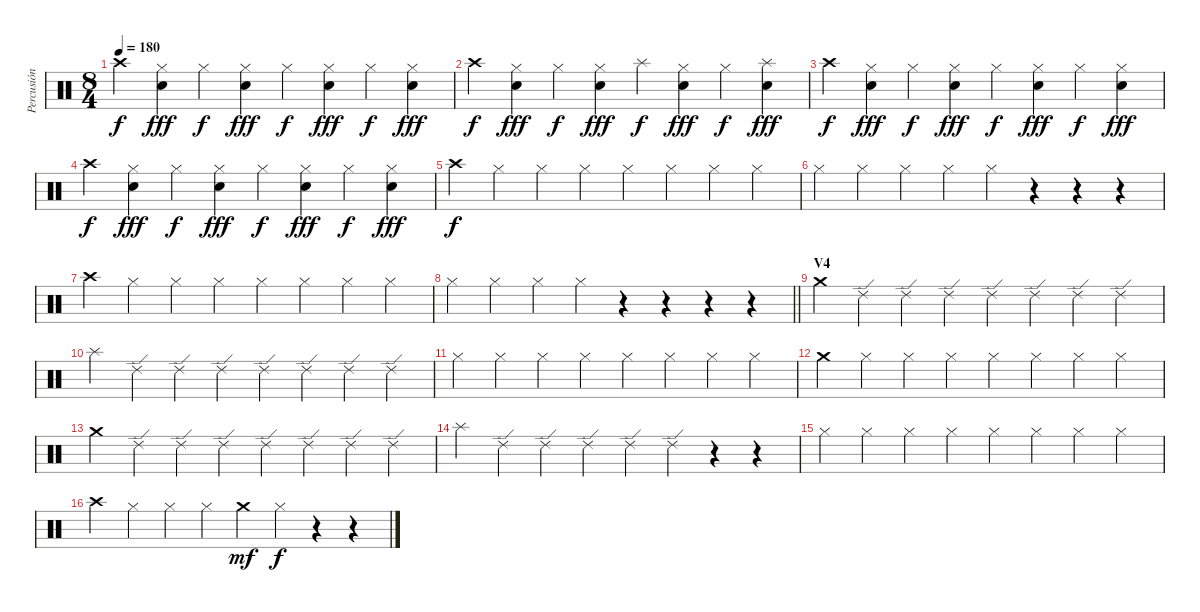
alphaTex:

\track ("Percusión" "Percusión") {instrument percussion}
\staff {score}
\articulation defaults
\ts (8 4)
\tempo 180
\clef neutral
\ks c "Crash high (hit)".4{dy f}
("Hi-Hat (closed)" "Electric Snare (hit)").4{dy fff} "Hi-Hat (closed)".4{dy f} ("Hi-Hat (closed)" "Electric Snare (hit)").4{dy fff} "Hi-Hat (closed)".4{dy f} ("Hi-Hat (closed)" "Electric Snare (hit)").4{dy fff} "Hi-Hat (closed)".4{dy f} ("Hi-Hat (closed)" "Electric Snare (hit)").4{dy fff} |
"Crash high (hit)".4{dy f} ("Hi-Hat (closed)" "Electric Snare (hit)").4{dy fff} "Hi-Hat (closed)".4{dy f} ("Hi-Hat (closed)" "Electric Snare (hit)").4{dy fff} "Splash (hit)".4{dy f} ("Hi-Hat (closed)" "Electric Snare (hit)").4{dy fff} "Hi-Hat (closed)".4{dy f} ("Splash (hit)" "Electric Snare (hit)").4{dy fff} |
"Crash high (hit)".4{dy f} ("Hi-Hat (closed)" "Electric Snare (hit)").4{dy fff} "Hi-Hat (closed)".4{dy f} ("Hi-Hat (closed)" "Electric Snare (hit)").4{dy fff} "Hi-Hat (closed)".4{dy f} ("Hi-Hat (closed)" "Electric Snare (hit)").4{dy fff} "Hi-Hat (closed)".4{dy f} ("Hi-Hat (closed)" "Electric Snare (hit)").4{dy fff} |
"Crash high (hit)".4{dy f} ("Hi-Hat (closed)" "Electric Snare (hit)").4{dy fff} "Hi-Hat (closed)".4{dy f} ("Hi-Hat (closed)" "Electric Snare (hit)").4{dy fff} "Hi-Hat (closed)".4{dy f} ("Hi-Hat (closed)" "Electric Snare (hit)").4{dy fff} "Hi-Hat (closed)".4{dy f} ("Hi-Hat (closed)" "Electric Snare (hit)").4{dy fff} |
"Crash high (hit)".4{dy f} "Hi-Hat (closed)".4 "Hi-Hat (closed)".4 "Hi-Hat (closed)".4 "Hi-Hat (closed)".4 "Hi-Hat (closed)".4 "Hi-Hat (closed)".4 "Hi-Hat (closed)".4 |
"Hi-Hat (closed)".4 "Hi-Hat (closed)".4 "Hi-Hat (closed)".4 "Hi-Hat (closed)".4 "Hi-Hat (closed)".4 r.4 r.4 r.4 |
"Crash high (hit)".4 "Hi-Hat (closed)".4 "Hi-Hat (closed)".4 "Hi-Hat (closed)".4 "Hi-Hat (closed)".4 "Hi-Hat (closed)".4 "Hi-Hat (closed)".4 "Hi-Hat (closed)".4 |
\barLineRight lightlight "Hi-Hat (closed)".4 "Hi-Hat (closed)".4 "Hi-Hat (closed)".4 "Hi-Hat (closed)".4
r.4 r.4 r.4 r.4 |
\section ("" "V4")
"Crash medium (hit)".4 "Ride (edge) 2".4 "Ride (edge) 2".4 "Ride (edge) 2".4 "Ride (edge) 2".4 "Ride (edge) 2".4 "Ride (edge) 2".4 "Ride (edge) 2".4 |
"Splash (hit)".4 "Ride (edge) 2".4 "Ride (edge) 2".4 "Ride (edge) 2".4 "Ride (edge) 2".4 "Ride (edge) 2".4 "Ride (edge) 2".4 "Ride (edge) 2".4 |
"Hi-Hat (closed)".4 "Hi-Hat (closed)".4 "Hi-Hat (closed)".4 "Hi-Hat (closed)".4 "Hi-Hat (closed)".4 "Hi-Hat (closed)".4 "Hi-Hat (closed)".4 "Hi-Hat (closed)".4 |
"Crash medium (hit)".4 "Hi-Hat (closed)".4 "Hi-Hat (closed)".4 "Hi-Hat (closed)".4 "Hi-Hat (closed)".4 "Hi-Hat (closed)".4 "Hi-Hat (closed)".4 "Hi-Hat (closed)".4 |
"Crash medium (hit)".4 "Ride (edge) 2".4 "Ride (edge) 2".4 "Ride (edge) 2".4 "Ride (edge) 2".4 "Ride (edge) 2".4 "Ride (edge) 2".4 "Ride (edge) 2".4 |
"Splash (hit)".4 "Ride (edge) 2".4 "Ride (edge) 2".4 "Ride (edge) 2".4 "Ride (edge) 2".4 "Ride (edge) 2".4 r.4 r.4 |
"Hi-Hat (closed)".4 "Hi-Hat (closed)".4 "Hi-Hat (closed)".4 "Hi-Hat (closed)".4 "Hi-Hat (closed)".4 "Hi-Hat (closed)".4 "Hi-Hat (closed)".4 "Hi-Hat (closed)".4 |
"Crash high (hit)".4 "Hi-Hat (closed)".4 "Hi-Hat (closed)".4 "Hi-Hat (closed)".4 "Crash medium (hit)".4{dy mf} "Hi-Hat (closed)".4{dy f} r.4 r.4
